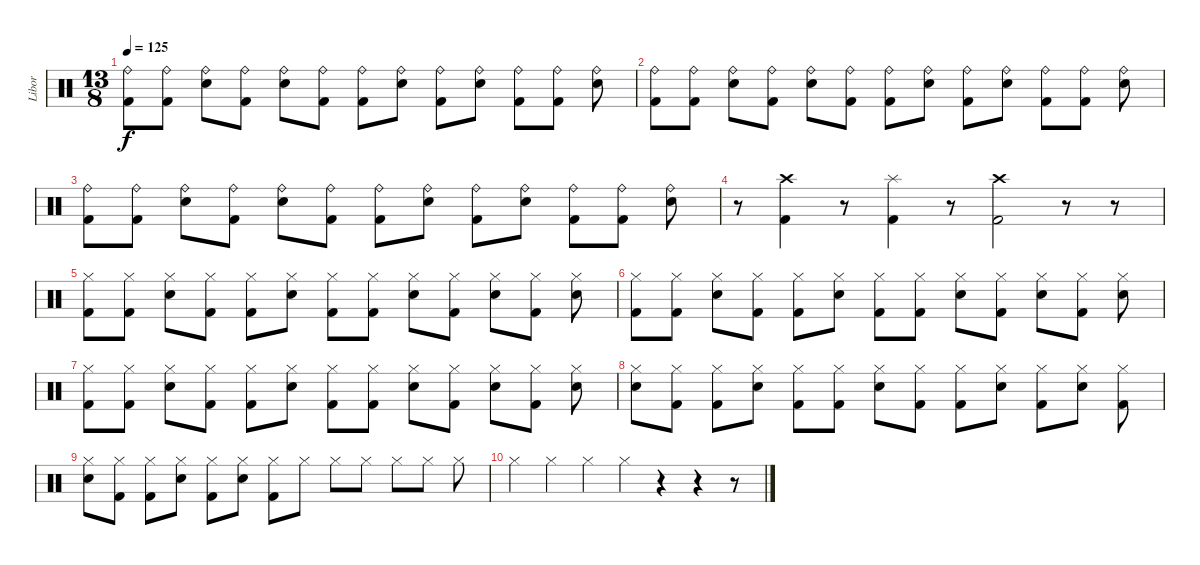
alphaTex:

\track ("Libor" "Libor") {instrument percussion}
\staff {score}
\articulation defaults
\ts (13 8)
\tempo 125
\clef neutral
\ks c
("Ride (bell)" "Kick (hit) 2").8{dy f} ("Ride (bell)" "Kick (hit) 2").8 ("Ride (bell)" "Snare (hit) 2").8 ("Ride (bell)" "Kick (hit) 2").8 ("Ride (bell)" "Snare (hit) 2").8 ("Ride (bell)" "Kick (hit) 2").8 ("Ride (bell)" "Kick (hit) 2").8 ("Ride (bell)" "Snare (hit) 2").8 ("Ride (bell)" "Kick (hit) 2").8 ("Ride (bell)" "Snare (hit) 2").8 ("Ride (bell)" "Kick (hit) 2").8 ("Ride (bell)" "Kick (hit) 2").8 ("Ride (bell)" "Snare (hit) 2").8 |
("Ride (bell)" "Kick (hit) 2").8 ("Ride (bell)" "Kick (hit) 2").8 ("Ride (bell)" "Snare (hit) 2").8 ("Ride (bell)" "Kick (hit) 2").8 ("Ride (bell)" "Snare (hit) 2").8 ("Ride (bell)" "Kick (hit) 2").8 ("Ride (bell)" "Kick (hit) 2").8 ("Ride (bell)" "Snare (hit) 2").8 ("Ride (bell)" "Kick (hit) 2").8 ("Ride (bell)" "Snare (hit) 2").8 ("Ride (bell)" "Kick (hit) 2").8 ("Ride (bell)" "Kick (hit) 2").8 ("Ride (bell)" "Snare (hit) 2").8 |
("Ride (bell)" "Kick (hit) 2").8 ("Ride (bell)" "Kick (hit) 2").8 ("Ride (bell)" "Snare (hit) 2").8 ("Ride (bell)" "Kick (hit) 2").8 ("Ride (bell)" "Snare (hit) 2").8 ("Ride (bell)" "Kick (hit) 2").8 ("Ride (bell)" "Kick (hit) 2").8 ("Ride (bell)" "Snare (hit) 2").8 ("Ride (bell)" "Kick (hit) 2").8 ("Ride (bell)" "Snare (hit) 2").8 ("Ride (bell)" "Kick (hit) 2").8 ("Ride (bell)" "Kick (hit) 2").8 ("Ride (bell)" "Snare (hit) 2").8 |
r.8 ("Crash high (hit)" "Kick (hit) 2").4 r.8 ("Splash (hit)" "Kick (hit) 2").4 r.8 ("Crash high (hit)" "Kick (hit) 2").2 r.8 r.8 |
("Hi-Hat (closed)" "Kick (hit) 2").8 ("Hi-Hat (closed)" "Kick (hit) 2").8 ("Hi-Hat (closed)" "Snare (hit) 2").8 ("Hi-Hat (closed)" "Kick (hit) 2").8 ("Hi-Hat (closed)" "Kick (hit) 2").8 ("Hi-Hat (closed)" "Snare (hit) 2").8 ("Hi-Hat (closed)" "Kick (hit) 2").8 ("Hi-Hat (closed)" "Kick (hit) 2").8 ("Hi-Hat (closed)" "Snare (hit) 2").8 ("Hi-Hat (closed)" "Kick (hit) 2").8 ("Hi-Hat (closed)" "Snare (hit) 2").8 ("Hi-Hat (closed)" "Kick (hit) 2").8 ("Hi-Hat (closed)" "Snare (hit) 2").8 |
("Hi-Hat (closed)" "Kick (hit) 2").8 ("Hi-Hat (closed)" "Kick (hit) 2").8 ("Hi-Hat (closed)" "Snare (hit) 2").8 ("Hi-Hat (closed)" "Kick (hit) 2").8 ("Hi-Hat (closed)" "Kick (hit) 2").8 ("Hi-Hat (closed)" "Snare (hit) 2").8 ("Hi-Hat (closed)" "Kick (hit) 2").8 ("Hi-Hat (closed)" "Kick (hit) 2").8 ("Hi-Hat (closed)" "Snare (hit) 2").8 ("Hi-Hat (closed)" "Kick (hit) 2").8 ("Hi-Hat (closed)" "Snare (hit) 2").8 ("Hi-Hat (closed)" "Kick (hit) 2").8 ("Hi-Hat (closed)" "Snare (hit) 2").8 |
("Hi-Hat (closed)" "Kick (hit) 2").8 ("Hi-Hat (closed)" "Kick (hit) 2").8 ("Hi-Hat (closed)" "Snare (hit) 2").8 ("Hi-Hat (closed)" "Kick (hit) 2").8 ("Hi-Hat (closed)" "Kick (hit) 2").8 ("Hi-Hat (closed)" "Snare (hit) 2").8 ("Hi-Hat (closed)" "Kick (hit) 2").8 ("Hi-Hat (closed)" "Kick (hit) 2").8 ("Hi-Hat (closed)" "Snare (hit) 2").8 ("Hi-Hat (closed)" "Kick (hit) 2").8 ("Hi-Hat (closed)" "Snare (hit) 2").8 ("Hi-Hat (closed)" "Kick (hit) 2").8 ("Hi-Hat (closed)" "Snare (hit) 2").8 |
("Hi-Hat (closed)" "Snare (hit) 2").8 ("Hi-Hat (closed)" "Kick (hit) 2").8 ("Hi-Hat (closed)" "Kick (hit) 2").8 ("Hi-Hat (closed)" "Snare (hit) 2").8 ("Hi-Hat (closed)" "Kick (hit) 2").8 ("Hi-Hat (closed)" "Kick (hit) 2").8 ("Hi-Hat (closed)" "Snare (hit) 2").8 ("Hi-Hat (closed)" "Kick (hit) 2").8 ("Hi-Hat (closed)" "Kick (hit) 2").8 ("Hi-Hat (closed)" "Snare (hit) 2").8 ("Hi-Hat (closed)" "Kick (hit) 2").8 ("Hi-Hat (closed)" "Snare (hit) 2").8 ("Hi-Hat (closed)" "Kick (hit) 2").8 |
("Hi-Hat (closed)" "Snare (hit) 2").8 ("Hi-Hat (closed)" "Kick (hit) 2").8 ("Hi-Hat (closed)" "Kick (hit) 2").8 ("Hi-Hat (closed)" "Snare (hit) 2").8 ("Hi-Hat (closed)" "Kick (hit) 2").8 ("Hi-Hat (closed)" "Snare (hit) 2").8 ("Hi-Hat (closed)" "Kick (hit) 2").8 "Hi-Hat (closed)".8 "Hi-Hat (closed)".8 "Hi-Hat (closed)".8 "Hi-Hat (closed)".8 "Hi-Hat (closed)".8 "Hi-Hat (closed)".8 |
"Hi-Hat (closed)".4 "Hi-Hat (closed)".4 "Hi-Hat (closed)".4 "Hi-Hat (closed)".4 r.4 r.4 r.8
